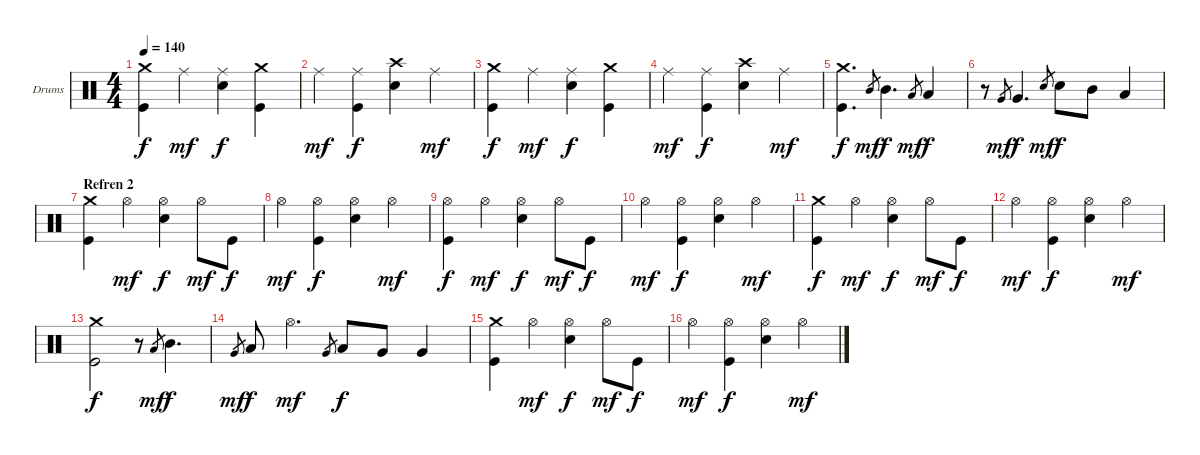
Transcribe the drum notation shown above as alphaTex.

\bracketExtendMode groupsimilarinstruments
\firstSystemTrackNameOrientation horizontal
\otherSystemsTrackNameOrientation horizontal
\track ("Drumkit" "Drums") {instrument percussion}
\staff {score}
\articulation defaults
\ts (4 4)
\tempo 140
\clef neutral
\ks c
("Kick (hit)" "Crash medium (hit)").4{dy f} "Ride (middle)".4{dy mf} ("Snare (hit) 2" "Ride (middle)").4{dy f} ("Kick (hit)" "Crash medium (hit)").4 |
"Ride (middle)".4{dy mf} ("Kick (hit)" "Ride (middle)").4{dy f} ("Snare (hit) 2" "Crash high (hit)").4 "Ride (middle)".4{dy mf} |
("Kick (hit)" "Crash medium (hit)").4{dy f} "Ride (middle)".4{dy mf} ("Snare (hit) 2" "Ride (middle)").4{dy f} ("Kick (hit)" "Crash medium (hit)").4 |
"Ride (middle)".4{dy mf} ("Kick (hit)" "Ride (middle)").4{dy f} ("Snare (hit) 2" "Crash high (hit)").4 "Ride (middle)".4{dy mf} |
("Kick (hit)" "Crash medium (hit)").4{d dy f} "Mid Tom (hit)".8{gr dy mf} "Mid Tom (hit)".4{d dy f} "Low Tom (hit)".8{gr dy mf} "Low Tom (hit)".4{dy f} |
r.8 "Very Low Tom (hit)".8{gr dy mf} "Very Low Tom (hit)".4{d dy f} "Snare (hit) 2".8{gr dy mf} "Snare (hit) 2".8{dy f} "Mid Tom (hit)".8 "Low Tom (hit)".4 |
\section ("" "Refren 2")
("Kick (hit)" "Crash medium (hit)").4 "Hi-Hat (open)".4{dy mf} ("Snare (hit) 2" "Hi-Hat (open)").4{dy f} "Hi-Hat (open)".8{dy mf} "Kick (hit)".8{dy f} |
"Hi-Hat (open)".4{dy mf} ("Kick (hit)" "Hi-Hat (open)").4{dy f} ("Snare (hit) 2" "Hi-Hat (open)").4 "Hi-Hat (open)".4{dy mf} |
("Kick (hit)" "Hi-Hat (open)").4{dy f} "Hi-Hat (open)".4{dy mf} ("Snare (hit) 2" "Hi-Hat (open)").4{dy f} "Hi-Hat (open)".8{dy mf} "Kick (hit)".8{dy f} |
"Hi-Hat (open)".4{dy mf} ("Kick (hit)" "Hi-Hat (open)").4{dy f} ("Snare (hit) 2" "Hi-Hat (open)").4 "Hi-Hat (open)".4{dy mf} |
("Kick (hit)" "Crash medium (hit)").4{dy f} "Hi-Hat (open)".4{dy mf} ("Snare (hit) 2" "Hi-Hat (open)").4{dy f} "Hi-Hat (open)".8{dy mf} "Kick (hit)".8{dy f} |
"Hi-Hat (open)".4{dy mf} ("Kick (hit)" "Hi-Hat (open)").4{dy f} ("Snare (hit) 2" "Hi-Hat (open)").4 "Hi-Hat (open)".4{dy mf} |
("Kick (hit)" "Crash medium (hit)").2{dy f} r.8 "Low Tom (hit)".8{gr dy mf} "Mid Tom (hit)".4{d dy f} |
"Very Low Tom (hit)".8{gr dy mf} "Low Tom (hit)".8{dy f} "Hi-Hat (open)".4{d dy mf} "Very Low Tom (hit)".8{gr} "Low Tom (hit)".8{dy f} "Very Low Tom (hit)".8 "Very Low Tom (hit)".4 |
("Kick (hit)" "Crash medium (hit)").4 "Hi-Hat (open)".4{dy mf} ("Snare (hit) 2" "Hi-Hat (open)").4{dy f} "Hi-Hat (open)".8{dy mf} "Kick (hit)".8{dy f} |
"Hi-Hat (open)".4{dy mf} ("Kick (hit)" "Hi-Hat (open)").4{dy f} ("Snare (hit) 2" "Hi-Hat (open)").4 "Hi-Hat (open)".4{dy mf}
